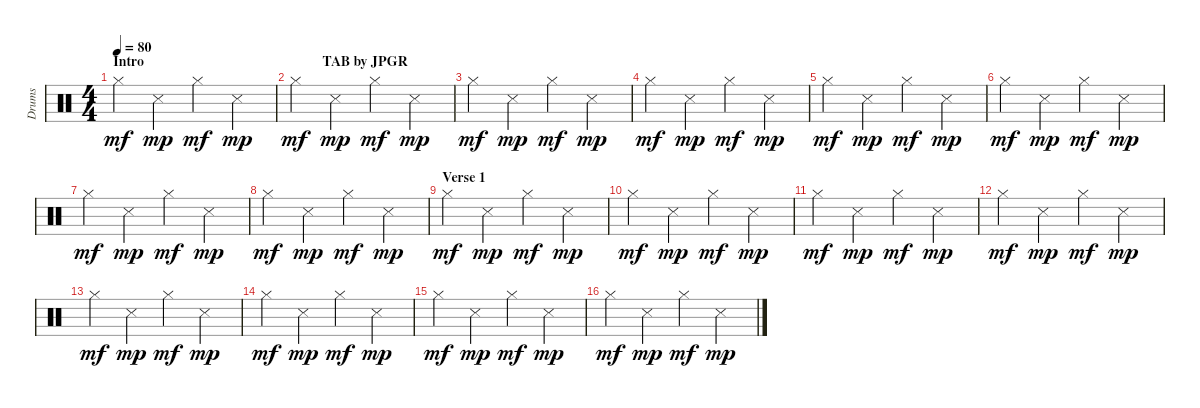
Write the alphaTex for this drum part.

\track ("Drums" "Drums") {instrument percussion}
\staff {score}
\articulation defaults
\ts (4 4)
\section ("" "Intro                                                   TAB by JPGR")
\tempo 80
\clef neutral
\ks c "Hi-Hat (closed)".4{dy mf} "Snare (side stick) 3".4{dy mp} "Hi-Hat (closed)".4{dy mf} "Snare (side stick) 3".4{dy mp}
|
"Hi-Hat (closed)".4{dy mf} "Snare (side stick) 3".4{dy mp} "Hi-Hat (closed)".4{dy mf} "Snare (side stick) 3".4{dy mp} |
"Hi-Hat (closed)".4{dy mf} "Snare (side stick) 3".4{dy mp} "Hi-Hat (closed)".4{dy mf} "Snare (side stick) 3".4{dy mp} |
"Hi-Hat (closed)".4{dy mf} "Snare (side stick) 3".4{dy mp} "Hi-Hat (closed)".4{dy mf} "Snare (side stick) 3".4{dy mp} |
"Hi-Hat (closed)".4{dy mf} "Snare (side stick) 3".4{dy mp} "Hi-Hat (closed)".4{dy mf} "Snare (side stick) 3".4{dy mp} |
"Hi-Hat (closed)".4{dy mf} "Snare (side stick) 3".4{dy mp} "Hi-Hat (closed)".4{dy mf} "Snare (side stick) 3".4{dy mp} |
"Hi-Hat (closed)".4{dy mf} "Snare (side stick) 3".4{dy mp} "Hi-Hat (closed)".4{dy mf} "Snare (side stick) 3".4{dy mp} |
"Hi-Hat (closed)".4{dy mf} "Snare (side stick) 3".4{dy mp} "Hi-Hat (closed)".4{dy mf} "Snare (side stick) 3".4{dy mp} |
\section ("" "Verse 1")
"Hi-Hat (closed)".4{dy mf} "Snare (side stick) 3".4{dy mp} "Hi-Hat (closed)".4{dy mf} "Snare (side stick) 3".4{dy mp} |
"Hi-Hat (closed)".4{dy mf} "Snare (side stick) 3".4{dy mp} "Hi-Hat (closed)".4{dy mf} "Snare (side stick) 3".4{dy mp} |
"Hi-Hat (closed)".4{dy mf} "Snare (side stick) 3".4{dy mp} "Hi-Hat (closed)".4{dy mf} "Snare (side stick) 3".4{dy mp} |
"Hi-Hat (closed)".4{dy mf} "Snare (side stick) 3".4{dy mp} "Hi-Hat (closed)".4{dy mf} "Snare (side stick) 3".4{dy mp} |
"Hi-Hat (closed)".4{dy mf} "Snare (side stick) 3".4{dy mp} "Hi-Hat (closed)".4{dy mf} "Snare (side stick) 3".4{dy mp} |
"Hi-Hat (closed)".4{dy mf} "Snare (side stick) 3".4{dy mp} "Hi-Hat (closed)".4{dy mf} "Snare (side stick) 3".4{dy mp} |
"Hi-Hat (closed)".4{dy mf} "Snare (side stick) 3".4{dy mp} "Hi-Hat (closed)".4{dy mf} "Snare (side stick) 3".4{dy mp} |
"Hi-Hat (closed)".4{dy mf} "Snare (side stick) 3".4{dy mp} "Hi-Hat (closed)".4{dy mf} "Snare (side stick) 3".4{dy mp}
